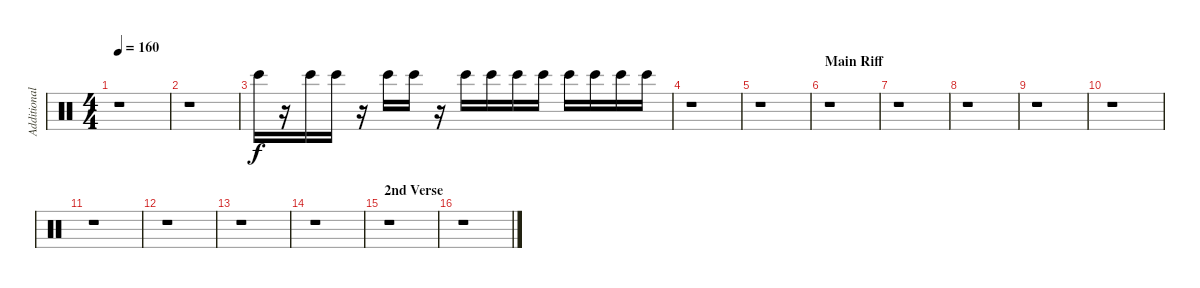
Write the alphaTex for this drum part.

\track ("Additional Percussion 2" "Additional") {instrument percussion}
\staff {score}
\articulation defaults
\ts (4 4)
\tempo 160
\clef neutral
\ks c
r.1{dy f} |
r.1 |
"Bongo High (hit)".16 r.16 "Bongo High (hit)".16 "Bongo High (hit)".16 r.16 "Bongo High (hit)".16 "Bongo High (hit)".16 r.16 "Bongo High (hit)".16 "Bongo High (hit)".16 "Bongo High (hit)".16 "Bongo High (hit)".16 "Bongo High (hit)".16 "Bongo High (hit)".16 "Bongo High (hit)".16 "Bongo High (hit)".16 |
r.1 |
r.1 |
\section ("" "Main Riff")
r.1 |
r.1 |
r.1 |
r.1 |
r.1 |
r.1 |
r.1 |
r.1 |
r.1 |
\section ("" "2nd Verse")
r.1 |
r.1
